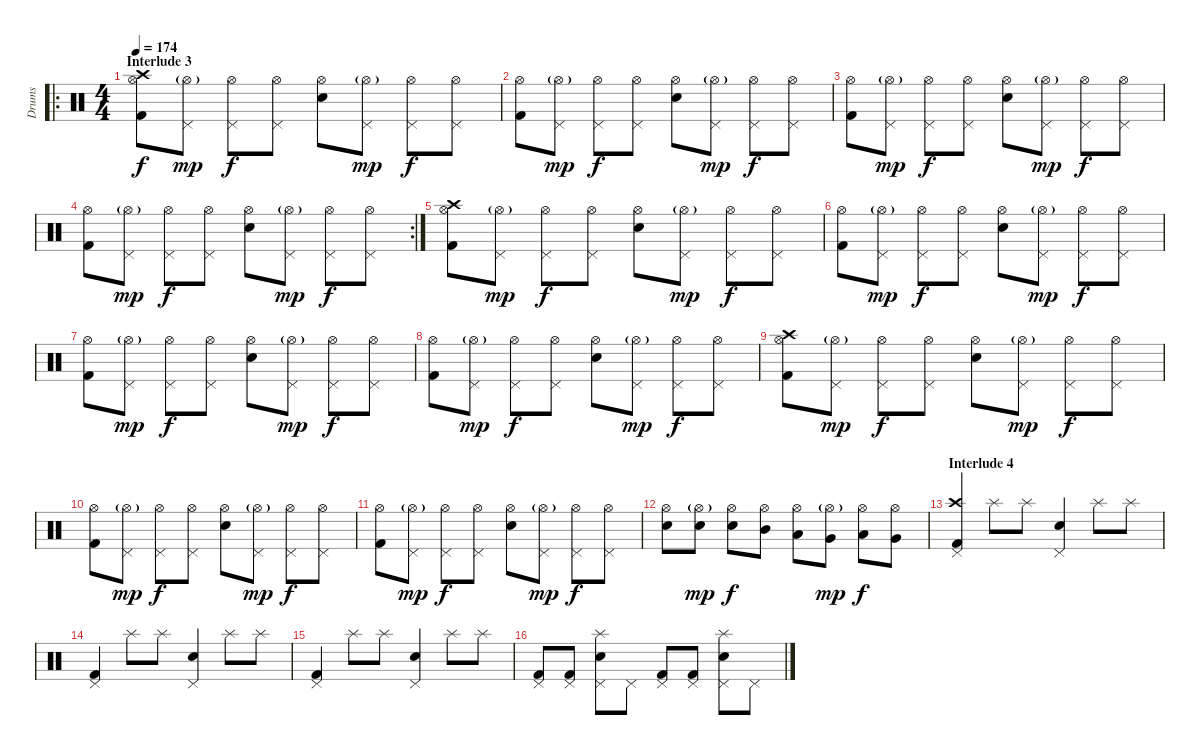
\track ("Drums" "Drums") {instrument percussion}
\staff {score}
\articulation defaults
\ro
\ts (4 4)
\section ("" "Interlude 3")
\tempo 174
\clef neutral
\ks c
("Kick (hit) 2" "Hi-Hat (open)" "Crash high (hit)").8{dy f} ("Pedal Hi-Hat (hit)" "Hi-Hat (open)"{g}).8{dy mp} ("Pedal Hi-Hat (hit)" "Hi-Hat (open)").8{dy f} ("Pedal Hi-Hat (hit)" "Hi-Hat (open)").8 ("Snare (hit) 2" "Hi-Hat (open)").8 ("Pedal Hi-Hat (hit)" "Hi-Hat (open)"{g}).8{dy mp} ("Pedal Hi-Hat (hit)" "Hi-Hat (open)").8{dy f} ("Pedal Hi-Hat (hit)" "Hi-Hat (open)").8 |
("Kick (hit) 2" "Hi-Hat (open)").8 ("Pedal Hi-Hat (hit)" "Hi-Hat (open)"{g}).8{dy mp} ("Pedal Hi-Hat (hit)" "Hi-Hat (open)").8{dy f} ("Pedal Hi-Hat (hit)" "Hi-Hat (open)").8 ("Snare (hit) 2" "Hi-Hat (open)").8 ("Pedal Hi-Hat (hit)" "Hi-Hat (open)"{g}).8{dy mp} ("Pedal Hi-Hat (hit)" "Hi-Hat (open)").8{dy f} ("Pedal Hi-Hat (hit)" "Hi-Hat (open)").8 |
("Kick (hit) 2" "Hi-Hat (open)").8 ("Pedal Hi-Hat (hit)" "Hi-Hat (open)"{g}).8{dy mp} ("Pedal Hi-Hat (hit)" "Hi-Hat (open)").8{dy f} ("Pedal Hi-Hat (hit)" "Hi-Hat (open)").8 ("Snare (hit) 2" "Hi-Hat (open)").8 ("Pedal Hi-Hat (hit)" "Hi-Hat (open)"{g}).8{dy mp} ("Pedal Hi-Hat (hit)" "Hi-Hat (open)").8{dy f} ("Pedal Hi-Hat (hit)" "Hi-Hat (open)").8 |
\rc 2
("Kick (hit) 2" "Hi-Hat (open)").8 ("Pedal Hi-Hat (hit)" "Hi-Hat (open)"{g}).8{dy mp} ("Pedal Hi-Hat (hit)" "Hi-Hat (open)").8{dy f} ("Pedal Hi-Hat (hit)" "Hi-Hat (open)").8 ("Snare (hit) 2" "Hi-Hat (open)").8 ("Pedal Hi-Hat (hit)" "Hi-Hat (open)"{g}).8{dy mp} ("Pedal Hi-Hat (hit)" "Hi-Hat (open)").8{dy f} ("Pedal Hi-Hat (hit)" "Hi-Hat (open)").8 |
("Kick (hit) 2" "Hi-Hat (open)" "Crash high (hit)").8 ("Pedal Hi-Hat (hit)" "Hi-Hat (open)"{g}).8{dy mp} ("Pedal Hi-Hat (hit)" "Hi-Hat (open)").8{dy f} ("Pedal Hi-Hat (hit)" "Hi-Hat (open)").8 ("Snare (hit) 2" "Hi-Hat (open)").8 ("Pedal Hi-Hat (hit)" "Hi-Hat (open)"{g}).8{dy mp} ("Pedal Hi-Hat (hit)" "Hi-Hat (open)").8{dy f} ("Pedal Hi-Hat (hit)" "Hi-Hat (open)").8 |
("Kick (hit) 2" "Hi-Hat (open)").8 ("Pedal Hi-Hat (hit)" "Hi-Hat (open)"{g}).8{dy mp} ("Pedal Hi-Hat (hit)" "Hi-Hat (open)").8{dy f} ("Pedal Hi-Hat (hit)" "Hi-Hat (open)").8 ("Snare (hit) 2" "Hi-Hat (open)").8 ("Pedal Hi-Hat (hit)" "Hi-Hat (open)"{g}).8{dy mp} ("Pedal Hi-Hat (hit)" "Hi-Hat (open)").8{dy f} ("Pedal Hi-Hat (hit)" "Hi-Hat (open)").8 |
("Kick (hit) 2" "Hi-Hat (open)").8 ("Pedal Hi-Hat (hit)" "Hi-Hat (open)"{g}).8{dy mp} ("Pedal Hi-Hat (hit)" "Hi-Hat (open)").8{dy f} ("Pedal Hi-Hat (hit)" "Hi-Hat (open)").8 ("Snare (hit) 2" "Hi-Hat (open)").8 ("Pedal Hi-Hat (hit)" "Hi-Hat (open)"{g}).8{dy mp} ("Pedal Hi-Hat (hit)" "Hi-Hat (open)").8{dy f} ("Pedal Hi-Hat (hit)" "Hi-Hat (open)").8 |
("Kick (hit) 2" "Hi-Hat (open)").8 ("Pedal Hi-Hat (hit)" "Hi-Hat (open)"{g}).8{dy mp} ("Pedal Hi-Hat (hit)" "Hi-Hat (open)").8{dy f} ("Pedal Hi-Hat (hit)" "Hi-Hat (open)").8 ("Snare (hit) 2" "Hi-Hat (open)").8 ("Pedal Hi-Hat (hit)" "Hi-Hat (open)"{g}).8{dy mp} ("Pedal Hi-Hat (hit)" "Hi-Hat (open)").8{dy f} ("Pedal Hi-Hat (hit)" "Hi-Hat (open)").8 |
("Kick (hit) 2" "Hi-Hat (open)" "Crash high (hit)").8 ("Pedal Hi-Hat (hit)" "Hi-Hat (open)"{g}).8{dy mp} ("Pedal Hi-Hat (hit)" "Hi-Hat (open)").8{dy f} ("Pedal Hi-Hat (hit)" "Hi-Hat (open)").8 ("Snare (hit) 2" "Hi-Hat (open)").8 ("Pedal Hi-Hat (hit)" "Hi-Hat (open)"{g}).8{dy mp} ("Pedal Hi-Hat (hit)" "Hi-Hat (open)").8{dy f} ("Pedal Hi-Hat (hit)" "Hi-Hat (open)").8 |
("Kick (hit) 2" "Hi-Hat (open)").8 ("Pedal Hi-Hat (hit)" "Hi-Hat (open)"{g}).8{dy mp} ("Pedal Hi-Hat (hit)" "Hi-Hat (open)").8{dy f} ("Pedal Hi-Hat (hit)" "Hi-Hat (open)").8 ("Snare (hit) 2" "Hi-Hat (open)").8 ("Pedal Hi-Hat (hit)" "Hi-Hat (open)"{g}).8{dy mp} ("Pedal Hi-Hat (hit)" "Hi-Hat (open)").8{dy f} ("Pedal Hi-Hat (hit)" "Hi-Hat (open)").8 |
("Kick (hit) 2" "Hi-Hat (open)").8 ("Pedal Hi-Hat (hit)" "Hi-Hat (open)"{g}).8{dy mp} ("Pedal Hi-Hat (hit)" "Hi-Hat (open)").8{dy f} ("Pedal Hi-Hat (hit)" "Hi-Hat (open)").8 ("Snare (hit) 2" "Hi-Hat (open)").8 ("Pedal Hi-Hat (hit)" "Hi-Hat (open)"{g}).8{dy mp} ("Pedal Hi-Hat (hit)" "Hi-Hat (open)").8{dy f} ("Pedal Hi-Hat (hit)" "Hi-Hat (open)").8 |
("Snare (hit) 2" "Hi-Hat (open)").8 ("Snare (hit) 2" "Hi-Hat (open)"{g}).8{dy mp} ("Snare (hit) 2" "Hi-Hat (open)").8{dy f} ("Mid Tom (hit)" "Hi-Hat (open)").8 ("Low Tom (hit)" "Hi-Hat (open)").8 ("Very Low Tom (hit)" "Hi-Hat (open)"{g}).8{dy mp} ("Low Tom (hit)" "Hi-Hat (open)").8{dy f} ("Very Low Tom (hit)" "Hi-Hat (open)").8 |
\section ("" "Interlude 4")
("Kick (hit) 2" "Pedal Hi-Hat (hit)" "Crash high (hit)").4 "Splash (hit)".8 "Splash (hit)".8 ("Snare (hit) 2" "Pedal Hi-Hat (hit)").4 "Splash (hit)".8 "Splash (hit)".8 |
("Kick (hit) 2" "Pedal Hi-Hat (hit)").4 "Splash (hit)".8 "Splash (hit)".8 ("Snare (hit) 2" "Pedal Hi-Hat (hit)").4 "Splash (hit)".8 "Splash (hit)".8 |
("Kick (hit) 2" "Pedal Hi-Hat (hit)").4 "Splash (hit)".8 "Splash (hit)".8 ("Snare (hit) 2" "Pedal Hi-Hat (hit)").4 "Splash (hit)".8 "Splash (hit)".8 |
("Kick (hit) 2" "Pedal Hi-Hat (hit)").8 ("Kick (hit) 2" "Pedal Hi-Hat (hit)").8 ("Snare (hit) 2" "Pedal Hi-Hat (hit)" "Splash (hit)").8 "Pedal Hi-Hat (hit)".8 ("Kick (hit) 2" "Pedal Hi-Hat (hit)").8 ("Kick (hit) 2" "Pedal Hi-Hat (hit)").8 ("Snare (hit) 2" "Pedal Hi-Hat (hit)" "Splash (hit)").8 "Pedal Hi-Hat (hit)".8
